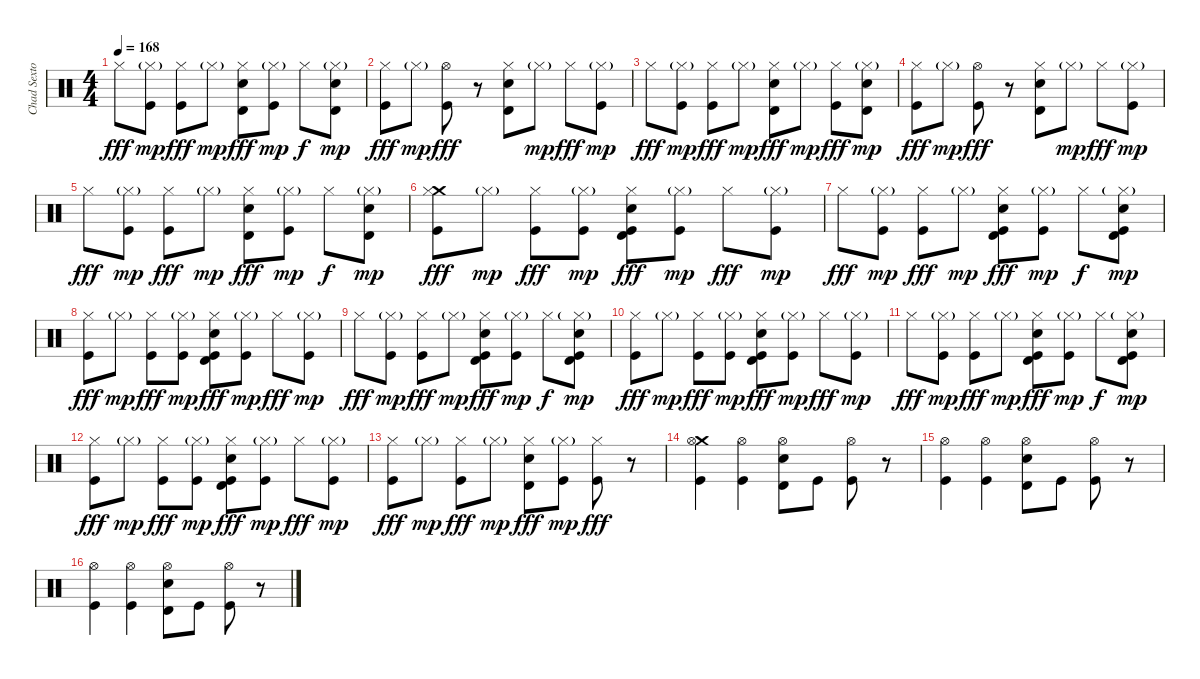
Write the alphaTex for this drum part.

\track ("Chad Sexton" "Chad Sexto") {instrument percussion}
\staff {score}
\articulation defaults
\ts (4 4)
\tempo 168
\clef neutral
\ks c "Hi-Hat (closed)".8{dy fff}
("Kick (hit)" "Hi-Hat (closed)"{g}).8{dy mp} ("Kick (hit)" "Hi-Hat (closed)").8{dy fff} "Hi-Hat (closed)"{g}.8{dy mp} ("Electric Snare (hit)" "Timbale high (hit)" "Hi-Hat (closed)").8{dy fff} ("Kick (hit)" "Hi-Hat (closed)"{g}).8{dy mp} "Hi-Hat (closed)".8{dy f} ("Electric Snare (hit)" "Timbale high (hit)" "Hi-Hat (closed)"{g}).8{dy mp} |
("Kick (hit)" "Hi-Hat (closed)").8{dy fff} "Hi-Hat (closed)"{g}.8{dy mp} ("Kick (hit)" "Hi-Hat (open)").8{dy fff} r.8 ("Electric Snare (hit)" "Timbale high (hit)" "Hi-Hat (closed)").8 "Hi-Hat (closed)"{g}.8{dy mp} "Hi-Hat (closed)".8{dy fff} ("Kick (hit)" "Hi-Hat (closed)"{g}).8{dy mp} |
"Hi-Hat (closed)".8{dy fff} ("Kick (hit)" "Hi-Hat (closed)"{g}).8{dy mp} ("Kick (hit)" "Hi-Hat (closed)").8{dy fff} "Hi-Hat (closed)"{g}.8{dy mp} ("Electric Snare (hit)" "Timbale high (hit)" "Hi-Hat (closed)").8{dy fff} "Hi-Hat (closed)"{g}.8{dy mp} ("Kick (hit)" "Hi-Hat (closed)").8{dy fff} ("Electric Snare (hit)" "Timbale high (hit)" "Hi-Hat (closed)"{g}).8{dy mp} |
("Kick (hit)" "Hi-Hat (closed)").8{dy fff} "Hi-Hat (closed)"{g}.8{dy mp} ("Kick (hit)" "Hi-Hat (open)").8{dy fff} r.8 ("Electric Snare (hit)" "Timbale high (hit)" "Hi-Hat (closed)").8 "Hi-Hat (closed)"{g}.8{dy mp} "Hi-Hat (closed)".8{dy fff} ("Kick (hit)" "Hi-Hat (closed)"{g}).8{dy mp} |
"Hi-Hat (closed)".8{dy fff} ("Kick (hit)" "Hi-Hat (closed)"{g}).8{dy mp} ("Kick (hit)" "Hi-Hat (closed)").8{dy fff} "Hi-Hat (closed)"{g}.8{dy mp} ("Electric Snare (hit)" "Timbale high (hit)" "Hi-Hat (closed)").8{dy fff} ("Kick (hit)" "Hi-Hat (closed)"{g}).8{dy mp} "Hi-Hat (closed)".8{dy f} ("Electric Snare (hit)" "Timbale high (hit)" "Hi-Hat (closed)"{g}).8{dy mp} |
("Crash medium (hit)" "Kick (hit)" "Hi-Hat (closed)").8{dy fff} "Hi-Hat (closed)"{g}.8{dy mp} ("Kick (hit)" "Hi-Hat (closed)").8{dy fff} ("Kick (hit)" "Hi-Hat (closed)"{g}).8{dy mp} ("Timbale high (hit)" "Electric Snare (hit)" "Kick (hit)" "Hi-Hat (closed)").8{dy fff} ("Kick (hit)" "Hi-Hat (closed)"{g}).8{dy mp} "Hi-Hat (closed)".8{dy fff} ("Kick (hit)" "Hi-Hat (closed)"{g}).8{dy mp} |
"Hi-Hat (closed)".8{dy fff} ("Kick (hit)" "Hi-Hat (closed)"{g}).8{dy mp} ("Kick (hit)" "Hi-Hat (closed)").8{dy fff} "Hi-Hat (closed)"{g}.8{dy mp} ("Timbale high (hit)" "Electric Snare (hit)" "Kick (hit)" "Hi-Hat (closed)").8{dy fff} ("Kick (hit)" "Hi-Hat (closed)"{g}).8{dy mp} "Hi-Hat (closed)".8{dy f} ("Timbale high (hit)" "Electric Snare (hit)" "Kick (hit)" "Hi-Hat (closed)"{g}).8{dy mp} |
("Kick (hit)" "Hi-Hat (closed)").8{dy fff} "Hi-Hat (closed)"{g}.8{dy mp} ("Kick (hit)" "Hi-Hat (closed)").8{dy fff} ("Kick (hit)" "Hi-Hat (closed)"{g}).8{dy mp} ("Timbale high (hit)" "Electric Snare (hit)" "Kick (hit)" "Hi-Hat (closed)").8{dy fff} ("Kick (hit)" "Hi-Hat (closed)"{g}).8{dy mp} "Hi-Hat (closed)".8{dy fff} ("Kick (hit)" "Hi-Hat (closed)"{g}).8{dy mp} |
"Hi-Hat (closed)".8{dy fff} ("Kick (hit)" "Hi-Hat (closed)"{g}).8{dy mp} ("Kick (hit)" "Hi-Hat (closed)").8{dy fff} "Hi-Hat (closed)"{g}.8{dy mp} ("Timbale high (hit)" "Electric Snare (hit)" "Kick (hit)" "Hi-Hat (closed)").8{dy fff} ("Kick (hit)" "Hi-Hat (closed)"{g}).8{dy mp} "Hi-Hat (closed)".8{dy f} ("Timbale high (hit)" "Electric Snare (hit)" "Kick (hit)" "Hi-Hat (closed)"{g}).8{dy mp} |
("Kick (hit)" "Hi-Hat (closed)").8{dy fff} "Hi-Hat (closed)"{g}.8{dy mp} ("Kick (hit)" "Hi-Hat (closed)").8{dy fff} ("Kick (hit)" "Hi-Hat (closed)"{g}).8{dy mp} ("Timbale high (hit)" "Electric Snare (hit)" "Kick (hit)" "Hi-Hat (closed)").8{dy fff} ("Kick (hit)" "Hi-Hat (closed)"{g}).8{dy mp} "Hi-Hat (closed)".8{dy fff} ("Kick (hit)" "Hi-Hat (closed)"{g}).8{dy mp} |
"Hi-Hat (closed)".8{dy fff} ("Kick (hit)" "Hi-Hat (closed)"{g}).8{dy mp} ("Kick (hit)" "Hi-Hat (closed)").8{dy fff} "Hi-Hat (closed)"{g}.8{dy mp} ("Timbale high (hit)" "Electric Snare (hit)" "Kick (hit)" "Hi-Hat (closed)").8{dy fff} ("Kick (hit)" "Hi-Hat (closed)"{g}).8{dy mp} "Hi-Hat (closed)".8{dy f} ("Timbale high (hit)" "Electric Snare (hit)" "Kick (hit)" "Hi-Hat (closed)"{g}).8{dy mp} |
("Kick (hit)" "Hi-Hat (closed)").8{dy fff} "Hi-Hat (closed)"{g}.8{dy mp} ("Kick (hit)" "Hi-Hat (closed)").8{dy fff} ("Kick (hit)" "Hi-Hat (closed)"{g}).8{dy mp} ("Timbale high (hit)" "Electric Snare (hit)" "Kick (hit)" "Hi-Hat (closed)").8{dy fff} ("Kick (hit)" "Hi-Hat (closed)"{g}).8{dy mp} "Hi-Hat (closed)".8{dy fff} ("Kick (hit)" "Hi-Hat (closed)"{g}).8{dy mp} |
("Kick (hit)" "Hi-Hat (closed)").8{dy fff} "Hi-Hat (closed)"{g}.8{dy mp} ("Kick (hit)" "Hi-Hat (closed)").8{dy fff} "Hi-Hat (closed)"{g}.8{dy mp} ("Timbale high (hit)" "Electric Snare (hit)" "Hi-Hat (closed)").8{dy fff} ("Kick (hit)" "Hi-Hat (closed)"{g}).8{dy mp} ("Kick (hit)" "Hi-Hat (closed)").8{dy fff} r.8 |
("Crash medium (hit)" "Hi-Hat (open)" "Kick (hit)").4 ("Hi-Hat (open)" "Kick (hit)").4 ("Hi-Hat (open)" "Electric Snare (hit)" "Timbale high (hit)").8 "Kick (hit)".8 ("Hi-Hat (open)" "Kick (hit)").8 r.8 |
("Hi-Hat (open)" "Kick (hit)").4 ("Hi-Hat (open)" "Kick (hit)").4 ("Hi-Hat (open)" "Electric Snare (hit)" "Timbale high (hit)").8 "Kick (hit)".8 ("Hi-Hat (open)" "Kick (hit)").8 r.8 |
("Hi-Hat (open)" "Kick (hit)").4 ("Hi-Hat (open)" "Kick (hit)").4 ("Hi-Hat (open)" "Electric Snare (hit)" "Timbale high (hit)").8 "Kick (hit)".8 ("Hi-Hat (open)" "Kick (hit)").8 r.8
